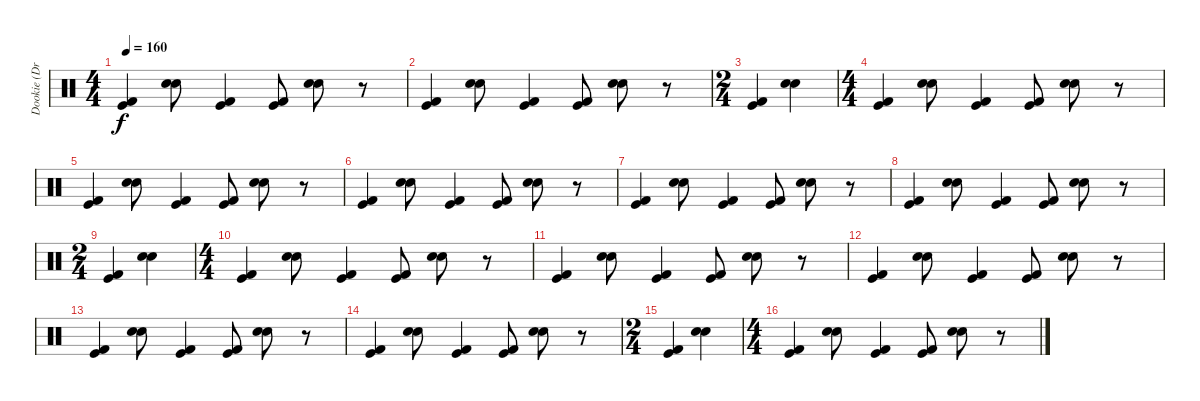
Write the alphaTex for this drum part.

\track ("Dookie (Drums)" "Dookie (Dr") {instrument percussion}
\staff {score}
\articulation defaults
\ts (4 4)
\tempo 160
\clef neutral
\ks c
("Kick (hit) 2" "Kick (hit)").4{dy f} ("Electric Snare (hit)" "Electric Snare (hit)").8 ("Kick (hit) 2" "Kick (hit)").4 ("Kick (hit) 2" "Kick (hit)").8 ("Electric Snare (hit)" "Electric Snare (hit)").8 r.8 |
("Kick (hit) 2" "Kick (hit)").4 ("Electric Snare (hit)" "Electric Snare (hit)").8 ("Kick (hit) 2" "Kick (hit)").4 ("Kick (hit) 2" "Kick (hit)").8 ("Electric Snare (hit)" "Electric Snare (hit)").8 r.8 |
\ts (2 4)
("Kick (hit) 2" "Kick (hit)").4 ("Electric Snare (hit)" "Electric Snare (hit)").4 |
\ts (4 4)
("Kick (hit) 2" "Kick (hit)").4 ("Electric Snare (hit)" "Electric Snare (hit)").8 ("Kick (hit) 2" "Kick (hit)").4 ("Kick (hit) 2" "Kick (hit)").8 ("Electric Snare (hit)" "Electric Snare (hit)").8 r.8 |
("Kick (hit) 2" "Kick (hit)").4 ("Electric Snare (hit)" "Electric Snare (hit)").8 ("Kick (hit) 2" "Kick (hit)").4 ("Kick (hit) 2" "Kick (hit)").8 ("Electric Snare (hit)" "Electric Snare (hit)").8 r.8 |
("Kick (hit) 2" "Kick (hit)").4 ("Electric Snare (hit)" "Electric Snare (hit)").8 ("Kick (hit) 2" "Kick (hit)").4 ("Kick (hit) 2" "Kick (hit)").8 ("Electric Snare (hit)" "Electric Snare (hit)").8 r.8 |
("Kick (hit) 2" "Kick (hit)").4 ("Electric Snare (hit)" "Electric Snare (hit)").8 ("Kick (hit) 2" "Kick (hit)").4 ("Kick (hit) 2" "Kick (hit)").8 ("Electric Snare (hit)" "Electric Snare (hit)").8 r.8 |
("Kick (hit) 2" "Kick (hit)").4 ("Electric Snare (hit)" "Electric Snare (hit)").8 ("Kick (hit) 2" "Kick (hit)").4 ("Kick (hit) 2" "Kick (hit)").8 ("Electric Snare (hit)" "Electric Snare (hit)").8 r.8 |
\ts (2 4)
("Kick (hit) 2" "Kick (hit)").4 ("Electric Snare (hit)" "Electric Snare (hit)").4 |
\ts (4 4)
("Kick (hit) 2" "Kick (hit)").4 ("Electric Snare (hit)" "Electric Snare (hit)").8 ("Kick (hit) 2" "Kick (hit)").4 ("Kick (hit) 2" "Kick (hit)").8 ("Electric Snare (hit)" "Electric Snare (hit)").8 r.8 |
("Kick (hit) 2" "Kick (hit)").4 ("Electric Snare (hit)" "Electric Snare (hit)").8 ("Kick (hit) 2" "Kick (hit)").4 ("Kick (hit) 2" "Kick (hit)").8 ("Electric Snare (hit)" "Electric Snare (hit)").8 r.8 |
("Kick (hit) 2" "Kick (hit)").4 ("Electric Snare (hit)" "Electric Snare (hit)").8 ("Kick (hit) 2" "Kick (hit)").4 ("Kick (hit) 2" "Kick (hit)").8 ("Electric Snare (hit)" "Electric Snare (hit)").8 r.8 |
("Kick (hit) 2" "Kick (hit)").4 ("Electric Snare (hit)" "Electric Snare (hit)").8 ("Kick (hit) 2" "Kick (hit)").4 ("Kick (hit) 2" "Kick (hit)").8 ("Electric Snare (hit)" "Electric Snare (hit)").8 r.8 |
("Kick (hit) 2" "Kick (hit)").4 ("Electric Snare (hit)" "Electric Snare (hit)").8 ("Kick (hit) 2" "Kick (hit)").4 ("Kick (hit) 2" "Kick (hit)").8 ("Electric Snare (hit)" "Electric Snare (hit)").8 r.8 |
\ts (2 4)
("Kick (hit) 2" "Kick (hit)").4 ("Electric Snare (hit)" "Electric Snare (hit)").4 |
\ts (4 4)
("Kick (hit) 2" "Kick (hit)").4 ("Electric Snare (hit)" "Electric Snare (hit)").8 ("Kick (hit) 2" "Kick (hit)").4 ("Kick (hit) 2" "Kick (hit)").8 ("Electric Snare (hit)" "Electric Snare (hit)").8 r.8
